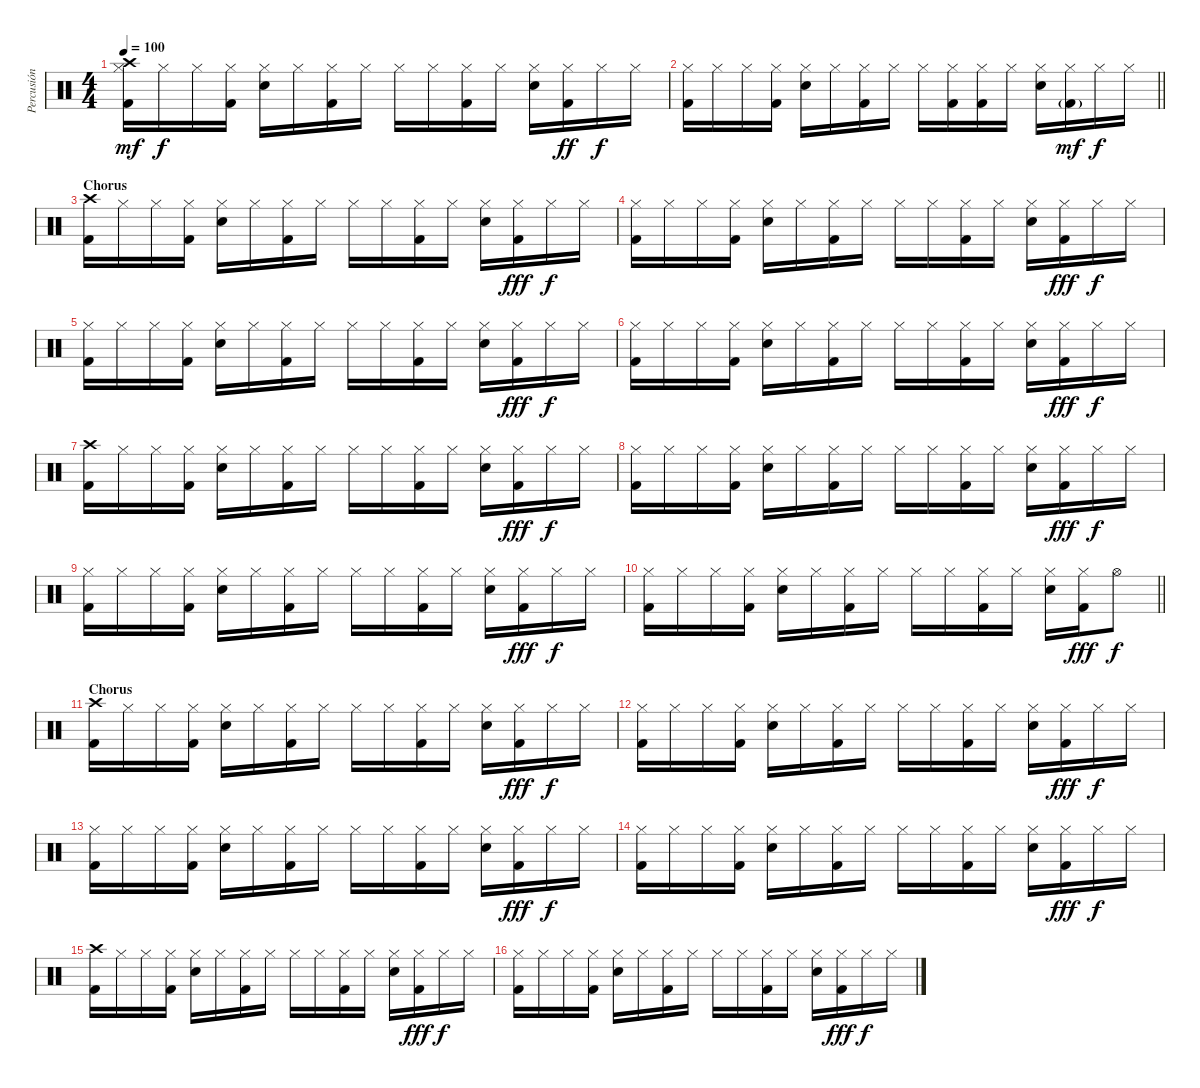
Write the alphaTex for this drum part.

\track ("Percusión" "Percusión") {instrument percussion}
\staff {score}
\articulation defaults
\ts (4 4)
\tempo 100
\clef neutral
\ks c
("Crash high (hit)" "Kick (hit) 2" "Hi-Hat (closed)").16{dy mf} "Hi-Hat (closed)".16{dy f} "Hi-Hat (closed)".16 ("Kick (hit) 2" "Hi-Hat (closed)").16 ("Snare (hit) 2" "Hi-Hat (closed)").16 "Hi-Hat (closed)".16 ("Kick (hit) 2" "Hi-Hat (closed)").16 "Hi-Hat (closed)".16 "Hi-Hat (closed)".16 "Hi-Hat (closed)".16 ("Kick (hit) 2" "Hi-Hat (closed)").16 "Hi-Hat (closed)".16 ("Snare (hit) 2" "Hi-Hat (closed)").16 ("Kick (hit) 2" "Hi-Hat (closed)").16{dy ff} "Hi-Hat (closed)".16{dy f} "Hi-Hat (closed)".16 |
\barLineRight lightlight
("Kick (hit) 2" "Hi-Hat (closed)").16 "Hi-Hat (closed)".16 "Hi-Hat (closed)".16 ("Kick (hit) 2" "Hi-Hat (closed)").16 ("Snare (hit) 2" "Hi-Hat (closed)").16 "Hi-Hat (closed)".16 ("Kick (hit) 2" "Hi-Hat (closed)").16 "Hi-Hat (closed)".16 "Hi-Hat (closed)".16 ("Kick (hit) 2" "Hi-Hat (closed)").16 ("Kick (hit) 2" "Hi-Hat (closed)").16 "Hi-Hat (closed)".16 ("Snare (hit) 2" "Hi-Hat (closed)").16 ("Kick (hit) 2"{g} "Hi-Hat (closed)").16{dy mf} "Hi-Hat (closed)".16{dy f} "Hi-Hat (closed)".16 |
\section ("" "Chorus")
("Kick (hit) 2" "Crash high (hit)").16 "Hi-Hat (closed)".16 "Hi-Hat (closed)".16 ("Kick (hit) 2" "Hi-Hat (closed)").16 ("Snare (hit) 2" "Hi-Hat (closed)").16 "Hi-Hat (closed)".16 ("Kick (hit) 2" "Hi-Hat (closed)").16 "Hi-Hat (closed)".16 "Hi-Hat (closed)".16 "Hi-Hat (closed)".16 ("Kick (hit) 2" "Hi-Hat (closed)").16 "Hi-Hat (closed)".16 ("Snare (hit) 2" "Hi-Hat (closed)").16 ("Kick (hit) 2" "Hi-Hat (closed)").16{dy fff} "Hi-Hat (closed)".16{dy f} "Hi-Hat (closed)".16 |
("Kick (hit) 2" "Hi-Hat (closed)").16 "Hi-Hat (closed)".16 "Hi-Hat (closed)".16 ("Kick (hit) 2" "Hi-Hat (closed)").16 ("Snare (hit) 2" "Hi-Hat (closed)").16 "Hi-Hat (closed)".16 ("Kick (hit) 2" "Hi-Hat (closed)").16 "Hi-Hat (closed)".16 "Hi-Hat (closed)".16 "Hi-Hat (closed)".16 ("Kick (hit) 2" "Hi-Hat (closed)").16 "Hi-Hat (closed)".16 ("Snare (hit) 2" "Hi-Hat (closed)").16 ("Kick (hit) 2" "Hi-Hat (closed)").16{dy fff} "Hi-Hat (closed)".16{dy f} "Hi-Hat (closed)".16 |
("Kick (hit) 2" "Hi-Hat (closed)").16 "Hi-Hat (closed)".16 "Hi-Hat (closed)".16 ("Kick (hit) 2" "Hi-Hat (closed)").16 ("Snare (hit) 2" "Hi-Hat (closed)").16 "Hi-Hat (closed)".16 ("Kick (hit) 2" "Hi-Hat (closed)").16 "Hi-Hat (closed)".16 "Hi-Hat (closed)".16 "Hi-Hat (closed)".16 ("Kick (hit) 2" "Hi-Hat (closed)").16 "Hi-Hat (closed)".16 ("Snare (hit) 2" "Hi-Hat (closed)").16 ("Kick (hit) 2" "Hi-Hat (closed)").16{dy fff} "Hi-Hat (closed)".16{dy f} "Hi-Hat (closed)".16 |
("Kick (hit) 2" "Hi-Hat (closed)").16 "Hi-Hat (closed)".16 "Hi-Hat (closed)".16 ("Kick (hit) 2" "Hi-Hat (closed)").16 ("Snare (hit) 2" "Hi-Hat (closed)").16 "Hi-Hat (closed)".16 ("Kick (hit) 2" "Hi-Hat (closed)").16 "Hi-Hat (closed)".16 "Hi-Hat (closed)".16 "Hi-Hat (closed)".16 ("Kick (hit) 2" "Hi-Hat (closed)").16 "Hi-Hat (closed)".16 ("Snare (hit) 2" "Hi-Hat (closed)").16 ("Kick (hit) 2" "Hi-Hat (closed)").16{dy fff} "Hi-Hat (closed)".16{dy f} "Hi-Hat (closed)".16 |
("Kick (hit) 2" "Crash high (hit)").16 "Hi-Hat (closed)".16 "Hi-Hat (closed)".16 ("Kick (hit) 2" "Hi-Hat (closed)").16 ("Snare (hit) 2" "Hi-Hat (closed)").16 "Hi-Hat (closed)".16 ("Kick (hit) 2" "Hi-Hat (closed)").16 "Hi-Hat (closed)".16 "Hi-Hat (closed)".16 "Hi-Hat (closed)".16 ("Kick (hit) 2" "Hi-Hat (closed)").16 "Hi-Hat (closed)".16 ("Snare (hit) 2" "Hi-Hat (closed)").16 ("Kick (hit) 2" "Hi-Hat (closed)").16{dy fff} "Hi-Hat (closed)".16{dy f} "Hi-Hat (closed)".16 |
("Kick (hit) 2" "Hi-Hat (closed)").16 "Hi-Hat (closed)".16 "Hi-Hat (closed)".16 ("Kick (hit) 2" "Hi-Hat (closed)").16 ("Snare (hit) 2" "Hi-Hat (closed)").16 "Hi-Hat (closed)".16 ("Kick (hit) 2" "Hi-Hat (closed)").16 "Hi-Hat (closed)".16 "Hi-Hat (closed)".16 "Hi-Hat (closed)".16 ("Kick (hit) 2" "Hi-Hat (closed)").16 "Hi-Hat (closed)".16 ("Snare (hit) 2" "Hi-Hat (closed)").16 ("Kick (hit) 2" "Hi-Hat (closed)").16{dy fff} "Hi-Hat (closed)".16{dy f} "Hi-Hat (closed)".16 |
("Kick (hit) 2" "Hi-Hat (closed)").16 "Hi-Hat (closed)".16 "Hi-Hat (closed)".16 ("Kick (hit) 2" "Hi-Hat (closed)").16 ("Snare (hit) 2" "Hi-Hat (closed)").16 "Hi-Hat (closed)".16 ("Kick (hit) 2" "Hi-Hat (closed)").16 "Hi-Hat (closed)".16 "Hi-Hat (closed)".16 "Hi-Hat (closed)".16 ("Kick (hit) 2" "Hi-Hat (closed)").16 "Hi-Hat (closed)".16 ("Snare (hit) 2" "Hi-Hat (closed)").16 ("Kick (hit) 2" "Hi-Hat (closed)").16{dy fff} "Hi-Hat (closed)".16{dy f} "Hi-Hat (closed)".16 |
\barLineRight lightlight
("Kick (hit) 2" "Hi-Hat (closed)").16 "Hi-Hat (closed)".16 "Hi-Hat (closed)".16 ("Kick (hit) 2" "Hi-Hat (closed)").16 ("Snare (hit) 2" "Hi-Hat (closed)").16 "Hi-Hat (closed)".16 ("Kick (hit) 2" "Hi-Hat (closed)").16 "Hi-Hat (closed)".16 "Hi-Hat (closed)".16 "Hi-Hat (closed)".16 ("Kick (hit) 2" "Hi-Hat (closed)").16 "Hi-Hat (closed)".16 ("Snare (hit) 2" "Hi-Hat (closed)").16 ("Kick (hit) 2" "Hi-Hat (closed)").16{dy fff} "Hi-Hat (open)".8{dy f} |
\section ("" "Chorus")
("Kick (hit) 2" "Crash high (hit)").16 "Hi-Hat (closed)".16 "Hi-Hat (closed)".16 ("Kick (hit) 2" "Hi-Hat (closed)").16 ("Snare (hit) 2" "Hi-Hat (closed)").16 "Hi-Hat (closed)".16 ("Kick (hit) 2" "Hi-Hat (closed)").16 "Hi-Hat (closed)".16 "Hi-Hat (closed)".16 "Hi-Hat (closed)".16 ("Kick (hit) 2" "Hi-Hat (closed)").16 "Hi-Hat (closed)".16 ("Snare (hit) 2" "Hi-Hat (closed)").16 ("Kick (hit) 2" "Hi-Hat (closed)").16{dy fff} "Hi-Hat (closed)".16{dy f} "Hi-Hat (closed)".16 |
("Kick (hit) 2" "Hi-Hat (closed)").16 "Hi-Hat (closed)".16 "Hi-Hat (closed)".16 ("Kick (hit) 2" "Hi-Hat (closed)").16 ("Snare (hit) 2" "Hi-Hat (closed)").16 "Hi-Hat (closed)".16 ("Kick (hit) 2" "Hi-Hat (closed)").16 "Hi-Hat (closed)".16 "Hi-Hat (closed)".16 "Hi-Hat (closed)".16 ("Kick (hit) 2" "Hi-Hat (closed)").16 "Hi-Hat (closed)".16 ("Snare (hit) 2" "Hi-Hat (closed)").16 ("Kick (hit) 2" "Hi-Hat (closed)").16{dy fff} "Hi-Hat (closed)".16{dy f} "Hi-Hat (closed)".16 |
("Kick (hit) 2" "Hi-Hat (closed)").16 "Hi-Hat (closed)".16 "Hi-Hat (closed)".16 ("Kick (hit) 2" "Hi-Hat (closed)").16 ("Snare (hit) 2" "Hi-Hat (closed)").16 "Hi-Hat (closed)".16 ("Kick (hit) 2" "Hi-Hat (closed)").16 "Hi-Hat (closed)".16 "Hi-Hat (closed)".16 "Hi-Hat (closed)".16 ("Kick (hit) 2" "Hi-Hat (closed)").16 "Hi-Hat (closed)".16 ("Snare (hit) 2" "Hi-Hat (closed)").16 ("Kick (hit) 2" "Hi-Hat (closed)").16{dy fff} "Hi-Hat (closed)".16{dy f} "Hi-Hat (closed)".16 |
("Kick (hit) 2" "Hi-Hat (closed)").16 "Hi-Hat (closed)".16 "Hi-Hat (closed)".16 ("Kick (hit) 2" "Hi-Hat (closed)").16 ("Snare (hit) 2" "Hi-Hat (closed)").16 "Hi-Hat (closed)".16 ("Kick (hit) 2" "Hi-Hat (closed)").16 "Hi-Hat (closed)".16 "Hi-Hat (closed)".16 "Hi-Hat (closed)".16 ("Kick (hit) 2" "Hi-Hat (closed)").16 "Hi-Hat (closed)".16 ("Snare (hit) 2" "Hi-Hat (closed)").16 ("Kick (hit) 2" "Hi-Hat (closed)").16{dy fff} "Hi-Hat (closed)".16{dy f} "Hi-Hat (closed)".16 |
("Kick (hit) 2" "Crash high (hit)").16 "Hi-Hat (closed)".16 "Hi-Hat (closed)".16 ("Kick (hit) 2" "Hi-Hat (closed)").16 ("Snare (hit) 2" "Hi-Hat (closed)").16 "Hi-Hat (closed)".16 ("Kick (hit) 2" "Hi-Hat (closed)").16 "Hi-Hat (closed)".16 "Hi-Hat (closed)".16 "Hi-Hat (closed)".16 ("Kick (hit) 2" "Hi-Hat (closed)").16 "Hi-Hat (closed)".16 ("Snare (hit) 2" "Hi-Hat (closed)").16 ("Kick (hit) 2" "Hi-Hat (closed)").16{dy fff} "Hi-Hat (closed)".16{dy f} "Hi-Hat (closed)".16 |
("Kick (hit) 2" "Hi-Hat (closed)").16 "Hi-Hat (closed)".16 "Hi-Hat (closed)".16 ("Kick (hit) 2" "Hi-Hat (closed)").16 ("Snare (hit) 2" "Hi-Hat (closed)").16 "Hi-Hat (closed)".16 ("Kick (hit) 2" "Hi-Hat (closed)").16 "Hi-Hat (closed)".16 "Hi-Hat (closed)".16 "Hi-Hat (closed)".16 ("Kick (hit) 2" "Hi-Hat (closed)").16 "Hi-Hat (closed)".16 ("Snare (hit) 2" "Hi-Hat (closed)").16 ("Kick (hit) 2" "Hi-Hat (closed)").16{dy fff} "Hi-Hat (closed)".16{dy f} "Hi-Hat (closed)".16
